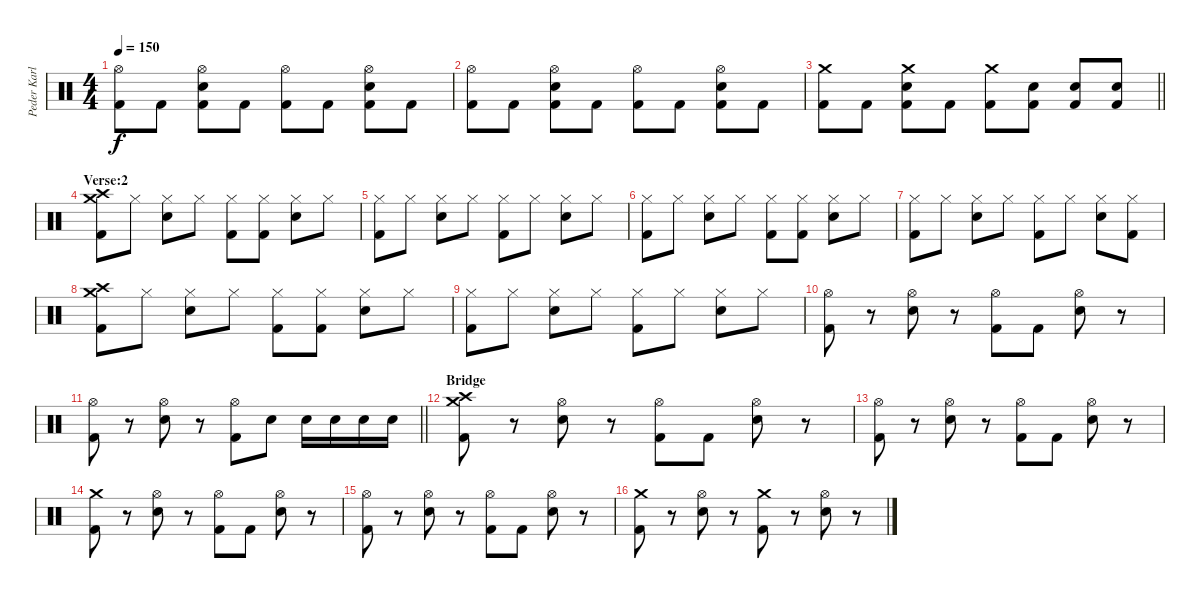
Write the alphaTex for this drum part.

\track ("Peder Karlsson" "Peder Karl") {instrument percussion}
\staff {score}
\articulation defaults
\ts (4 4)
\tempo 150
\clef neutral
\ks c
("Hi-Hat (open)" "Kick (hit) 2").8{dy f} "Kick (hit) 2".8 ("Hi-Hat (open)" "Snare (hit) 2" "Kick (hit) 2").8 "Kick (hit) 2".8 ("Hi-Hat (open)" "Kick (hit) 2").8 "Kick (hit) 2".8 ("Hi-Hat (open)" "Snare (hit) 2" "Kick (hit) 2").8 "Kick (hit) 2".8 |
("Hi-Hat (open)" "Kick (hit) 2").8 "Kick (hit) 2".8 ("Hi-Hat (open)" "Snare (hit) 2" "Kick (hit) 2").8 "Kick (hit) 2".8 ("Hi-Hat (open)" "Kick (hit) 2").8 "Kick (hit) 2".8 ("Hi-Hat (open)" "Snare (hit) 2" "Kick (hit) 2").8 "Kick (hit) 2".8 |
\barLineRight lightlight
("Crash medium (hit)" "Kick (hit) 2").8 "Kick (hit) 2".8 ("Crash medium (hit)" "Snare (hit) 2" "Kick (hit) 2").8 "Kick (hit) 2".8 ("Crash medium (hit)" "Kick (hit) 2").8 ("Snare (hit) 2" "Kick (hit) 2").8 ("Snare (hit) 2" "Kick (hit) 2").8 ("Snare (hit) 2" "Kick (hit) 2").8 |
\section ("" "Verse:2")
("Crash medium (hit)" "Crash high (hit)" "Kick (hit) 2").8 "Hi-Hat (closed)".8 ("Hi-Hat (closed)" "Snare (hit) 2").8 "Hi-Hat (closed)".8 ("Hi-Hat (closed)" "Kick (hit) 2").8 ("Hi-Hat (closed)" "Kick (hit) 2").8 ("Hi-Hat (closed)" "Snare (hit) 2").8 "Hi-Hat (closed)".8 |
("Hi-Hat (closed)" "Kick (hit) 2").8 "Hi-Hat (closed)".8 ("Hi-Hat (closed)" "Snare (hit) 2").8 "Hi-Hat (closed)".8 ("Hi-Hat (closed)" "Kick (hit) 2").8 "Hi-Hat (closed)".8 ("Hi-Hat (closed)" "Snare (hit) 2").8 "Hi-Hat (closed)".8 |
("Hi-Hat (closed)" "Kick (hit) 2").8 "Hi-Hat (closed)".8 ("Hi-Hat (closed)" "Snare (hit) 2").8 "Hi-Hat (closed)".8 ("Hi-Hat (closed)" "Kick (hit) 2").8 ("Hi-Hat (closed)" "Kick (hit) 2").8 ("Hi-Hat (closed)" "Snare (hit) 2").8 "Hi-Hat (closed)".8 |
("Hi-Hat (closed)" "Kick (hit) 2").8 "Hi-Hat (closed)".8 ("Hi-Hat (closed)" "Snare (hit) 2").8 "Hi-Hat (closed)".8 ("Hi-Hat (closed)" "Kick (hit) 2").8 "Hi-Hat (closed)".8 ("Hi-Hat (closed)" "Snare (hit) 2").8 ("Hi-Hat (closed)" "Kick (hit) 2").8 |
("Crash medium (hit)" "Crash high (hit)" "Kick (hit) 2").8 "Hi-Hat (closed)".8 ("Hi-Hat (closed)" "Snare (hit) 2").8 "Hi-Hat (closed)".8 ("Hi-Hat (closed)" "Kick (hit) 2").8 ("Hi-Hat (closed)" "Kick (hit) 2").8 ("Hi-Hat (closed)" "Snare (hit) 2").8 "Hi-Hat (closed)".8 |
("Hi-Hat (closed)" "Kick (hit) 2").8 "Hi-Hat (closed)".8 ("Hi-Hat (closed)" "Snare (hit) 2").8 "Hi-Hat (closed)".8 ("Hi-Hat (closed)" "Kick (hit) 2").8 "Hi-Hat (closed)".8 ("Hi-Hat (closed)" "Snare (hit) 2").8 "Hi-Hat (closed)".8 |
("Hi-Hat (open)" "Kick (hit) 2").8 r.8 ("Hi-Hat (open)" "Snare (hit) 2").8 r.8 ("Hi-Hat (open)" "Kick (hit) 2").8 "Kick (hit) 2".8 ("Hi-Hat (open)" "Snare (hit) 2").8 r.8 |
\barLineRight lightlight
("Hi-Hat (open)" "Kick (hit) 2").8 r.8 ("Hi-Hat (open)" "Snare (hit) 2").8 r.8 ("Hi-Hat (open)" "Kick (hit) 2").8 "Snare (hit) 2".8 "Snare (hit) 2".16 "Snare (hit) 2".16 "Snare (hit) 2".16 "Snare (hit) 2".16 |
\section ("" "Bridge")
("Crash medium (hit)" "Crash high (hit)" "Kick (hit) 2").8 r.8 ("Hi-Hat (open)" "Snare (hit) 2").8 r.8 ("Hi-Hat (open)" "Kick (hit) 2").8 "Kick (hit) 2".8 ("Hi-Hat (open)" "Snare (hit) 2").8 r.8 |
("Hi-Hat (open)" "Kick (hit) 2").8 r.8 ("Hi-Hat (open)" "Snare (hit) 2").8 r.8 ("Hi-Hat (open)" "Kick (hit) 2").8 "Kick (hit) 2".8 ("Hi-Hat (open)" "Snare (hit) 2").8 r.8 |
("Crash medium (hit)" "Kick (hit) 2").8 r.8 ("Hi-Hat (open)" "Snare (hit) 2").8 r.8 ("Hi-Hat (open)" "Kick (hit) 2").8 "Kick (hit) 2".8 ("Hi-Hat (open)" "Snare (hit) 2").8 r.8 |
("Hi-Hat (open)" "Kick (hit) 2").8 r.8 ("Hi-Hat (open)" "Snare (hit) 2").8 r.8 ("Hi-Hat (open)" "Kick (hit) 2").8 "Kick (hit) 2".8 ("Hi-Hat (open)" "Snare (hit) 2").8 r.8 |
("Crash medium (hit)" "Kick (hit) 2").8 r.8 ("Hi-Hat (open)" "Snare (hit) 2").8 r.8 ("Crash medium (hit)" "Kick (hit) 2").8 r.8 ("Hi-Hat (open)" "Snare (hit) 2").8 r.8
